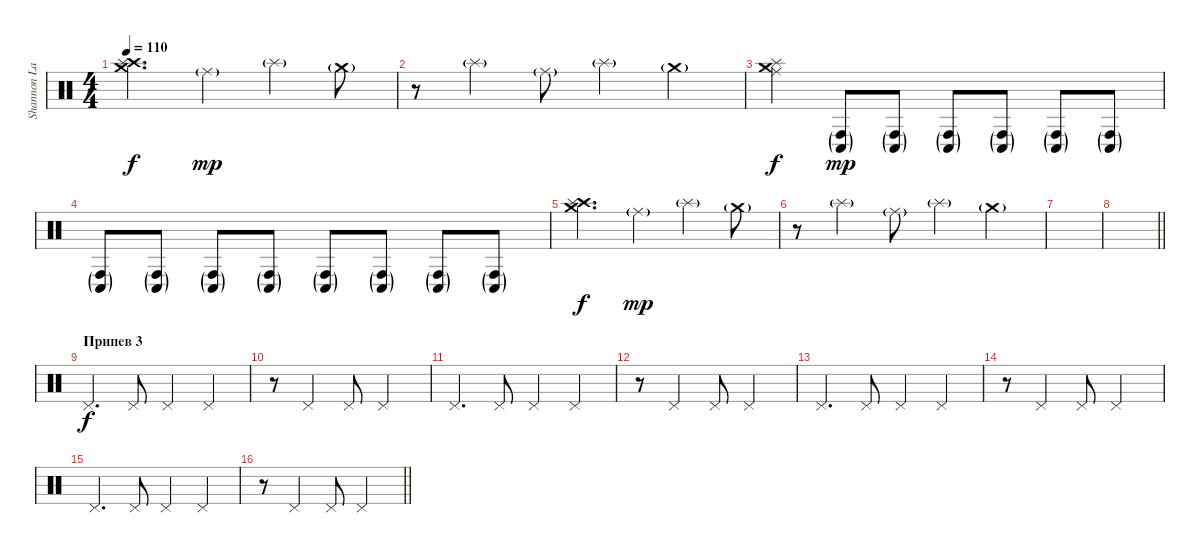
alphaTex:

\track ("Shannon Larkin [Percussion 3]" "Shannon La") {instrument percussion}
\staff {score}
\articulation defaults
\ts (4 4)
\tempo 110
\clef neutral
\ks c
("Crash medium (hit)" "Crash high (hit)" "Splash (hit)").4{d dy f} "Ride (middle)"{g}.4{dy mp} "Splash (hit)"{g}.4 "Crash medium (hit)"{g}.8 |
r.8 "Splash (hit)"{g}.4 "Ride (middle)"{g}.8 "Splash (hit)"{g}.4 "Crash medium (hit)"{g}.4 |
("Crash medium (hit)" "Ride (middle)" "Splash (hit)").4{dy f} ("Conga high (hit)"{g} "Conga low (hit)"{g}).8{bd 30 dy mp} ("Conga high (hit)"{g} "Conga low (hit)"{g}).8{bd 30} ("Conga high (hit)"{g} "Conga low (hit)"{g}).8{bd 30} ("Conga high (hit)"{g} "Conga low (hit)"{g}).8{bd 30} ("Conga high (hit)"{g} "Conga low (hit)"{g}).8{bd 30} ("Conga high (hit)"{g} "Conga low (hit)"{g}).8{bd 30} |
("Conga high (hit)"{g} "Conga low (hit)"{g}).8{bd 30} ("Conga high (hit)"{g} "Conga low (hit)"{g}).8{bd 30} ("Conga high (hit)"{g} "Conga low (hit)"{g}).8{bd 30} ("Conga high (hit)"{g} "Conga low (hit)"{g}).8{bd 30} ("Conga high (hit)"{g} "Conga low (hit)"{g}).8{bd 30} ("Conga high (hit)"{g} "Conga low (hit)"{g}).8{bd 30} ("Conga high (hit)"{g} "Conga low (hit)"{g}).8{bd 30} ("Conga high (hit)"{g} "Conga low (hit)"{g}).8{bd 30} |
("Crash medium (hit)" "Crash high (hit)" "Splash (hit)").4{d dy f} "Ride (middle)"{g}.4{dy mp} "Splash (hit)"{g}.4 "Crash medium (hit)"{g}.8 |
r.8 "Splash (hit)"{g}.4 "Ride (middle)"{g}.8 "Splash (hit)"{g}.4 "Crash medium (hit)"{g}.4 |
|
\barLineRight lightlight
|
\section ("" "Припев 3")
"Pedal Hi-Hat (hit)".4{d dy f} "Pedal Hi-Hat (hit)".8 "Pedal Hi-Hat (hit)".4 "Pedal Hi-Hat (hit)".4 |
r.8 "Pedal Hi-Hat (hit)".4 "Pedal Hi-Hat (hit)".8 "Pedal Hi-Hat (hit)".2 |
"Pedal Hi-Hat (hit)".4{d} "Pedal Hi-Hat (hit)".8 "Pedal Hi-Hat (hit)".4 "Pedal Hi-Hat (hit)".4 |
r.8 "Pedal Hi-Hat (hit)".4 "Pedal Hi-Hat (hit)".8 "Pedal Hi-Hat (hit)".2 |
"Pedal Hi-Hat (hit)".4{d} "Pedal Hi-Hat (hit)".8 "Pedal Hi-Hat (hit)".4 "Pedal Hi-Hat (hit)".4 |
r.8 "Pedal Hi-Hat (hit)".4 "Pedal Hi-Hat (hit)".8 "Pedal Hi-Hat (hit)".2 |
"Pedal Hi-Hat (hit)".4{d} "Pedal Hi-Hat (hit)".8 "Pedal Hi-Hat (hit)".4 "Pedal Hi-Hat (hit)".4 |
\barLineRight lightlight
r.8 "Pedal Hi-Hat (hit)".4 "Pedal Hi-Hat (hit)".8 "Pedal Hi-Hat (hit)".2
